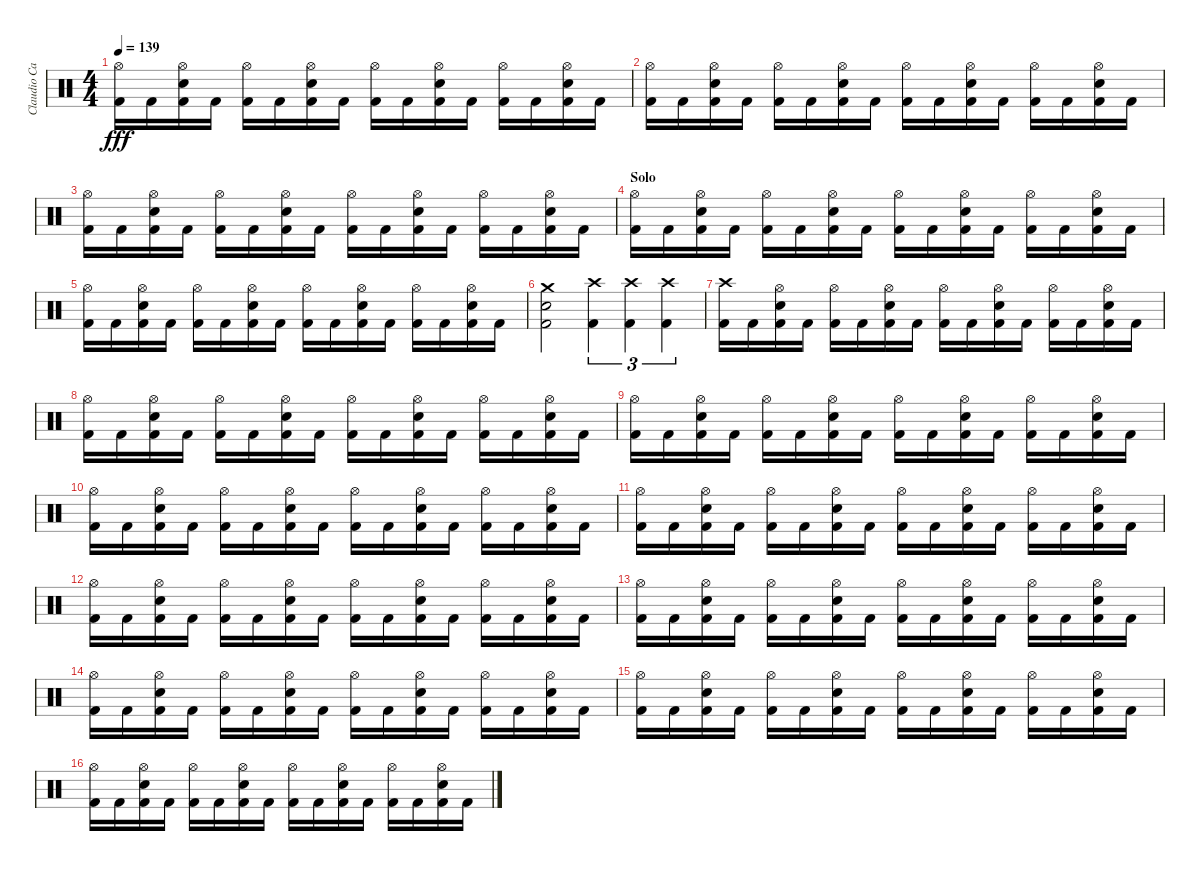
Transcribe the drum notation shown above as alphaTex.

\track ("Claudio Cardaci" "Claudio Ca") {instrument percussion}
\staff {score}
\articulation defaults
\ts (4 4)
\tempo 139
\clef neutral
\ks c
("Kick (hit) 2" "Hi-Hat (open)").16{dy fff} "Kick (hit) 2".16 ("Kick (hit) 2" "Electric Snare (hit)" "Hi-Hat (open)").16 "Kick (hit) 2".16 ("Kick (hit) 2" "Hi-Hat (open)").16 "Kick (hit) 2".16 ("Kick (hit) 2" "Electric Snare (hit)" "Hi-Hat (open)").16 "Kick (hit) 2".16 ("Kick (hit) 2" "Hi-Hat (open)").16 "Kick (hit) 2".16 ("Kick (hit) 2" "Electric Snare (hit)" "Hi-Hat (open)").16 "Kick (hit) 2".16 ("Kick (hit) 2" "Hi-Hat (open)").16 "Kick (hit) 2".16 ("Kick (hit) 2" "Electric Snare (hit)" "Hi-Hat (open)").16 "Kick (hit) 2".16 |
("Kick (hit) 2" "Hi-Hat (open)").16 "Kick (hit) 2".16 ("Kick (hit) 2" "Electric Snare (hit)" "Hi-Hat (open)").16 "Kick (hit) 2".16 ("Kick (hit) 2" "Hi-Hat (open)").16 "Kick (hit) 2".16 ("Kick (hit) 2" "Electric Snare (hit)" "Hi-Hat (open)").16 "Kick (hit) 2".16 ("Kick (hit) 2" "Hi-Hat (open)").16 "Kick (hit) 2".16 ("Kick (hit) 2" "Electric Snare (hit)" "Hi-Hat (open)").16 "Kick (hit) 2".16 ("Kick (hit) 2" "Hi-Hat (open)").16 "Kick (hit) 2".16 ("Kick (hit) 2" "Electric Snare (hit)" "Hi-Hat (open)").16 "Kick (hit) 2".16 |
("Kick (hit) 2" "Hi-Hat (open)").16 "Kick (hit) 2".16 ("Kick (hit) 2" "Electric Snare (hit)" "Hi-Hat (open)").16 "Kick (hit) 2".16 ("Kick (hit) 2" "Hi-Hat (open)").16 "Kick (hit) 2".16 ("Kick (hit) 2" "Electric Snare (hit)" "Hi-Hat (open)").16 "Kick (hit) 2".16 ("Kick (hit) 2" "Hi-Hat (open)").16 "Kick (hit) 2".16 ("Kick (hit) 2" "Electric Snare (hit)" "Hi-Hat (open)").16 "Kick (hit) 2".16 ("Kick (hit) 2" "Hi-Hat (open)").16 "Kick (hit) 2".16 ("Kick (hit) 2" "Electric Snare (hit)" "Hi-Hat (open)").16 "Kick (hit) 2".16 |
\section ("" "Solo")
("Kick (hit) 2" "Hi-Hat (open)").16 "Kick (hit) 2".16 ("Kick (hit) 2" "Electric Snare (hit)" "Hi-Hat (open)").16 "Kick (hit) 2".16 ("Kick (hit) 2" "Hi-Hat (open)").16 "Kick (hit) 2".16 ("Kick (hit) 2" "Electric Snare (hit)" "Hi-Hat (open)").16 "Kick (hit) 2".16 ("Kick (hit) 2" "Hi-Hat (open)").16 "Kick (hit) 2".16 ("Kick (hit) 2" "Electric Snare (hit)" "Hi-Hat (open)").16 "Kick (hit) 2".16 ("Kick (hit) 2" "Hi-Hat (open)").16 "Kick (hit) 2".16 ("Kick (hit) 2" "Electric Snare (hit)" "Hi-Hat (open)").16 "Kick (hit) 2".16 |
("Kick (hit) 2" "Hi-Hat (open)").16 "Kick (hit) 2".16 ("Kick (hit) 2" "Electric Snare (hit)" "Hi-Hat (open)").16 "Kick (hit) 2".16 ("Kick (hit) 2" "Hi-Hat (open)").16 "Kick (hit) 2".16 ("Kick (hit) 2" "Electric Snare (hit)" "Hi-Hat (open)").16 "Kick (hit) 2".16 ("Kick (hit) 2" "Hi-Hat (open)").16 "Kick (hit) 2".16 ("Kick (hit) 2" "Electric Snare (hit)" "Hi-Hat (open)").16 "Kick (hit) 2".16 ("Kick (hit) 2" "Hi-Hat (open)").16 "Kick (hit) 2".16 ("Kick (hit) 2" "Electric Snare (hit)" "Hi-Hat (open)").16 "Kick (hit) 2".16 |
("Kick (hit) 2" "Electric Snare (hit)" "Crash medium (hit)").2 ("Kick (hit) 2" "Crash high (hit)").4{tu (3 2)} ("Kick (hit) 2" "Crash high (hit)").4{tu (3 2)} ("Kick (hit) 2" "Crash high (hit)").4{tu (3 2)} |
("Kick (hit) 2" "Crash high (hit)").16 "Kick (hit) 2".16 ("Kick (hit) 2" "Electric Snare (hit)" "Hi-Hat (open)").16 "Kick (hit) 2".16 ("Kick (hit) 2" "Hi-Hat (open)").16 "Kick (hit) 2".16 ("Kick (hit) 2" "Electric Snare (hit)" "Hi-Hat (open)").16 "Kick (hit) 2".16 ("Kick (hit) 2" "Hi-Hat (open)").16 "Kick (hit) 2".16 ("Kick (hit) 2" "Electric Snare (hit)" "Hi-Hat (open)").16 "Kick (hit) 2".16 ("Kick (hit) 2" "Hi-Hat (open)").16 "Kick (hit) 2".16 ("Kick (hit) 2" "Electric Snare (hit)" "Hi-Hat (open)").16 "Kick (hit) 2".16 |
("Kick (hit) 2" "Hi-Hat (open)").16 "Kick (hit) 2".16 ("Kick (hit) 2" "Electric Snare (hit)" "Hi-Hat (open)").16 "Kick (hit) 2".16 ("Kick (hit) 2" "Hi-Hat (open)").16 "Kick (hit) 2".16 ("Kick (hit) 2" "Electric Snare (hit)" "Hi-Hat (open)").16 "Kick (hit) 2".16 ("Kick (hit) 2" "Hi-Hat (open)").16 "Kick (hit) 2".16 ("Kick (hit) 2" "Electric Snare (hit)" "Hi-Hat (open)").16 "Kick (hit) 2".16 ("Kick (hit) 2" "Hi-Hat (open)").16 "Kick (hit) 2".16 ("Kick (hit) 2" "Electric Snare (hit)" "Hi-Hat (open)").16 "Kick (hit) 2".16 |
("Kick (hit) 2" "Hi-Hat (open)").16 "Kick (hit) 2".16 ("Kick (hit) 2" "Electric Snare (hit)" "Hi-Hat (open)").16 "Kick (hit) 2".16 ("Kick (hit) 2" "Hi-Hat (open)").16 "Kick (hit) 2".16 ("Kick (hit) 2" "Electric Snare (hit)" "Hi-Hat (open)").16 "Kick (hit) 2".16 ("Kick (hit) 2" "Hi-Hat (open)").16 "Kick (hit) 2".16 ("Kick (hit) 2" "Electric Snare (hit)" "Hi-Hat (open)").16 "Kick (hit) 2".16 ("Kick (hit) 2" "Hi-Hat (open)").16 "Kick (hit) 2".16 ("Kick (hit) 2" "Electric Snare (hit)" "Hi-Hat (open)").16 "Kick (hit) 2".16 |
("Kick (hit) 2" "Hi-Hat (open)").16 "Kick (hit) 2".16 ("Kick (hit) 2" "Electric Snare (hit)" "Hi-Hat (open)").16 "Kick (hit) 2".16 ("Kick (hit) 2" "Hi-Hat (open)").16 "Kick (hit) 2".16 ("Kick (hit) 2" "Electric Snare (hit)" "Hi-Hat (open)").16 "Kick (hit) 2".16 ("Kick (hit) 2" "Hi-Hat (open)").16 "Kick (hit) 2".16 ("Kick (hit) 2" "Electric Snare (hit)" "Hi-Hat (open)").16 "Kick (hit) 2".16 ("Kick (hit) 2" "Hi-Hat (open)").16 "Kick (hit) 2".16 ("Kick (hit) 2" "Electric Snare (hit)" "Hi-Hat (open)").16 "Kick (hit) 2".16 |
("Kick (hit) 2" "Hi-Hat (open)").16 "Kick (hit) 2".16 ("Kick (hit) 2" "Electric Snare (hit)" "Hi-Hat (open)").16 "Kick (hit) 2".16 ("Kick (hit) 2" "Hi-Hat (open)").16 "Kick (hit) 2".16 ("Kick (hit) 2" "Electric Snare (hit)" "Hi-Hat (open)").16 "Kick (hit) 2".16 ("Kick (hit) 2" "Hi-Hat (open)").16 "Kick (hit) 2".16 ("Kick (hit) 2" "Electric Snare (hit)" "Hi-Hat (open)").16 "Kick (hit) 2".16 ("Kick (hit) 2" "Hi-Hat (open)").16 "Kick (hit) 2".16 ("Kick (hit) 2" "Electric Snare (hit)" "Hi-Hat (open)").16 "Kick (hit) 2".16 |
("Kick (hit) 2" "Hi-Hat (open)").16 "Kick (hit) 2".16 ("Kick (hit) 2" "Electric Snare (hit)" "Hi-Hat (open)").16 "Kick (hit) 2".16 ("Kick (hit) 2" "Hi-Hat (open)").16 "Kick (hit) 2".16 ("Kick (hit) 2" "Electric Snare (hit)" "Hi-Hat (open)").16 "Kick (hit) 2".16 ("Kick (hit) 2" "Hi-Hat (open)").16 "Kick (hit) 2".16 ("Kick (hit) 2" "Electric Snare (hit)" "Hi-Hat (open)").16 "Kick (hit) 2".16 ("Kick (hit) 2" "Hi-Hat (open)").16 "Kick (hit) 2".16 ("Kick (hit) 2" "Electric Snare (hit)" "Hi-Hat (open)").16 "Kick (hit) 2".16 |
("Kick (hit) 2" "Hi-Hat (open)").16 "Kick (hit) 2".16 ("Kick (hit) 2" "Electric Snare (hit)" "Hi-Hat (open)").16 "Kick (hit) 2".16 ("Kick (hit) 2" "Hi-Hat (open)").16 "Kick (hit) 2".16 ("Kick (hit) 2" "Electric Snare (hit)" "Hi-Hat (open)").16 "Kick (hit) 2".16 ("Kick (hit) 2" "Hi-Hat (open)").16 "Kick (hit) 2".16 ("Kick (hit) 2" "Electric Snare (hit)" "Hi-Hat (open)").16 "Kick (hit) 2".16 ("Kick (hit) 2" "Hi-Hat (open)").16 "Kick (hit) 2".16 ("Kick (hit) 2" "Electric Snare (hit)" "Hi-Hat (open)").16 "Kick (hit) 2".16 |
("Kick (hit) 2" "Hi-Hat (open)").16 "Kick (hit) 2".16 ("Kick (hit) 2" "Electric Snare (hit)" "Hi-Hat (open)").16 "Kick (hit) 2".16 ("Kick (hit) 2" "Hi-Hat (open)").16 "Kick (hit) 2".16 ("Kick (hit) 2" "Electric Snare (hit)" "Hi-Hat (open)").16 "Kick (hit) 2".16 ("Kick (hit) 2" "Hi-Hat (open)").16 "Kick (hit) 2".16 ("Kick (hit) 2" "Electric Snare (hit)" "Hi-Hat (open)").16 "Kick (hit) 2".16 ("Kick (hit) 2" "Hi-Hat (open)").16 "Kick (hit) 2".16 ("Kick (hit) 2" "Electric Snare (hit)" "Hi-Hat (open)").16 "Kick (hit) 2".16 |
("Kick (hit) 2" "Hi-Hat (open)").16 "Kick (hit) 2".16 ("Kick (hit) 2" "Electric Snare (hit)" "Hi-Hat (open)").16 "Kick (hit) 2".16 ("Kick (hit) 2" "Hi-Hat (open)").16 "Kick (hit) 2".16 ("Kick (hit) 2" "Electric Snare (hit)" "Hi-Hat (open)").16 "Kick (hit) 2".16 ("Kick (hit) 2" "Hi-Hat (open)").16 "Kick (hit) 2".16 ("Kick (hit) 2" "Electric Snare (hit)" "Hi-Hat (open)").16 "Kick (hit) 2".16 ("Kick (hit) 2" "Hi-Hat (open)").16 "Kick (hit) 2".16 ("Kick (hit) 2" "Electric Snare (hit)" "Hi-Hat (open)").16 "Kick (hit) 2".16 |
("Kick (hit) 2" "Hi-Hat (open)").16 "Kick (hit) 2".16 ("Kick (hit) 2" "Electric Snare (hit)" "Hi-Hat (open)").16 "Kick (hit) 2".16 ("Kick (hit) 2" "Hi-Hat (open)").16 "Kick (hit) 2".16 ("Kick (hit) 2" "Electric Snare (hit)" "Hi-Hat (open)").16 "Kick (hit) 2".16 ("Kick (hit) 2" "Hi-Hat (open)").16 "Kick (hit) 2".16 ("Kick (hit) 2" "Electric Snare (hit)" "Hi-Hat (open)").16 "Kick (hit) 2".16 ("Kick (hit) 2" "Hi-Hat (open)").16 "Kick (hit) 2".16 ("Kick (hit) 2" "Electric Snare (hit)" "Hi-Hat (open)").16 "Kick (hit) 2".16
